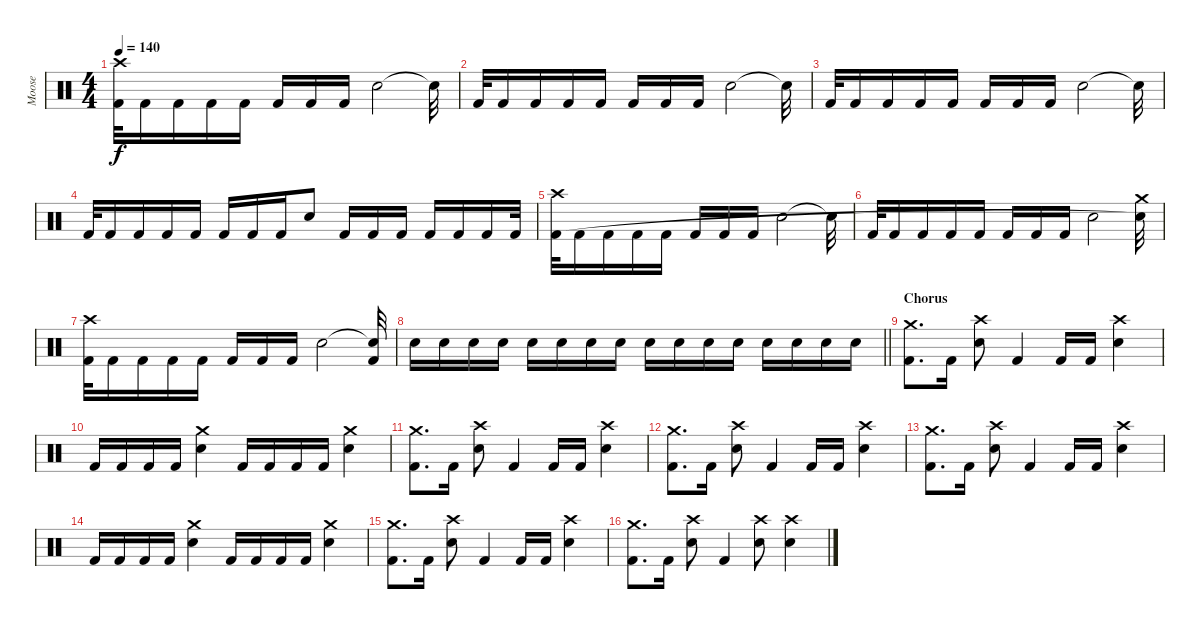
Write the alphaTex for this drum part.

\track ("Moose" "Moose") {instrument percussion}
\staff {score}
\articulation defaults
\ts (4 4)
\tempo 140
\clef neutral
\ks c
("Crash high (hit)" "Kick (hit) 2").32{dy f} "Kick (hit) 2".16 "Kick (hit) 2".16 "Kick (hit) 2".16 "Kick (hit) 2".16 "Kick (hit) 2".16 "Kick (hit) 2".16 "Kick (hit) 2".16 "Snare (hit) 2".2 "Snare (hit)"{t}.32 |
"Kick (hit) 2".32 "Kick (hit) 2".16 "Kick (hit) 2".16 "Kick (hit) 2".16 "Kick (hit) 2".16 "Kick (hit) 2".16 "Kick (hit) 2".16 "Kick (hit) 2".16 "Snare (hit) 2".2 "Snare (hit)"{t}.32 |
"Kick (hit) 2".32 "Kick (hit) 2".16 "Kick (hit) 2".16 "Kick (hit) 2".16 "Kick (hit) 2".16 "Kick (hit) 2".16 "Kick (hit) 2".16 "Kick (hit) 2".16 "Snare (hit) 2".2 "Snare (hit)"{t}.32 |
"Kick (hit) 2".32 "Kick (hit) 2".16 "Kick (hit) 2".16 "Kick (hit) 2".16 "Kick (hit) 2".16 "Kick (hit) 2".16 "Kick (hit) 2".16 "Kick (hit) 2".16 "Snare (hit) 2".8 "Kick (hit) 2".16 "Kick (hit) 2".16 "Kick (hit) 2".16 "Kick (hit) 2".16 "Kick (hit) 2".16 "Kick (hit) 2".16 "Kick (hit) 2".32 |
("Crash high (hit)" "Kick (hit) 2").32 "Kick (hit) 2".16 "Kick (hit) 2".16 "Kick (hit) 2".16 "Kick (hit) 2".16 "Kick (hit) 2".16 "Kick (hit) 2".16 "Kick (hit) 2".16 "Snare (hit) 2".2 "Snare (hit)"{t}.32 |
"Kick (hit) 2".32 "Kick (hit) 2".16 "Kick (hit) 2".16 "Kick (hit) 2".16 "Kick (hit) 2".16 "Kick (hit) 2".16 "Kick (hit) 2".16 "Kick (hit) 2".16 "Snare (hit) 2".2 ("Crash medium (hit)" "Snare (hit)"{t}).32 |
("Crash high (hit)" "Kick (hit) 2").32 "Kick (hit) 2".16 "Kick (hit) 2".16 "Kick (hit) 2".16 "Kick (hit) 2".16 "Kick (hit) 2".16 "Kick (hit) 2".16 "Kick (hit) 2".16 "Snare (hit) 2".2 ("Snare (hit)"{t} "Kick (hit) 2").32 |
\barLineRight lightlight "Snare (hit) 2".16 "Snare (hit) 2".16 "Snare (hit) 2".16 "Snare (hit) 2".16 "Snare (hit) 2".16 "Snare (hit) 2".16 "Snare (hit) 2".16 "Snare (hit) 2".16 "Snare (hit) 2".16 "Snare (hit) 2".16 "Snare (hit) 2".16 "Snare (hit) 2".16 "Snare (hit) 2".16 "Snare (hit) 2".16 "Snare (hit) 2".16 "Snare (hit) 2".16
|
\section ("" "Chorus")
("Crash medium (hit)" "Kick (hit) 2").8{d} "Kick (hit) 2".16 ("Crash high (hit)" "Snare (hit) 2").8 "Kick (hit) 2".4 "Kick (hit) 2".16 "Kick (hit) 2".16 ("Crash high (hit)" "Snare (hit) 2").4 |
"Kick (hit) 2".16 "Kick (hit) 2".16 "Kick (hit) 2".16 "Kick (hit) 2".16 ("Crash medium (hit)" "Snare (hit) 2").4 "Kick (hit) 2".16 "Kick (hit) 2".16 "Kick (hit) 2".16 "Kick (hit) 2".16 ("Crash medium (hit)" "Snare (hit) 2").4 |
("Crash medium (hit)" "Kick (hit) 2").8{d} "Kick (hit) 2".16 ("Crash high (hit)" "Snare (hit) 2").8 "Kick (hit) 2".4 "Kick (hit) 2".16 "Kick (hit) 2".16 ("Crash high (hit)" "Snare (hit) 2").4 |
("Crash medium (hit)" "Kick (hit) 2").8{d} "Kick (hit) 2".16 ("Crash high (hit)" "Snare (hit) 2").8 "Kick (hit) 2".4 "Kick (hit) 2".16 "Kick (hit) 2".16 ("Crash high (hit)" "Snare (hit) 2").4 |
("Crash medium (hit)" "Kick (hit) 2").8{d} "Kick (hit) 2".16 ("Crash high (hit)" "Snare (hit) 2").8 "Kick (hit) 2".4 "Kick (hit) 2".16 "Kick (hit) 2".16 ("Crash high (hit)" "Snare (hit) 2").4 |
"Kick (hit) 2".16 "Kick (hit) 2".16 "Kick (hit) 2".16 "Kick (hit) 2".16 ("Crash medium (hit)" "Snare (hit) 2").4 "Kick (hit) 2".16 "Kick (hit) 2".16 "Kick (hit) 2".16 "Kick (hit) 2".16 ("Crash medium (hit)" "Snare (hit) 2").4 |
("Crash medium (hit)" "Kick (hit) 2").8{d} "Kick (hit) 2".16 ("Crash high (hit)" "Snare (hit) 2").8 "Kick (hit) 2".4 "Kick (hit) 2".16 "Kick (hit) 2".16 ("Crash high (hit)" "Snare (hit) 2").4 |
("Crash medium (hit)" "Kick (hit) 2").8{d} "Kick (hit) 2".16 ("Crash high (hit)" "Snare (hit) 2").8 "Kick (hit) 2".4 ("Crash high (hit)" "Snare (hit) 2").8 ("Crash high (hit)" "Snare (hit) 2").4
